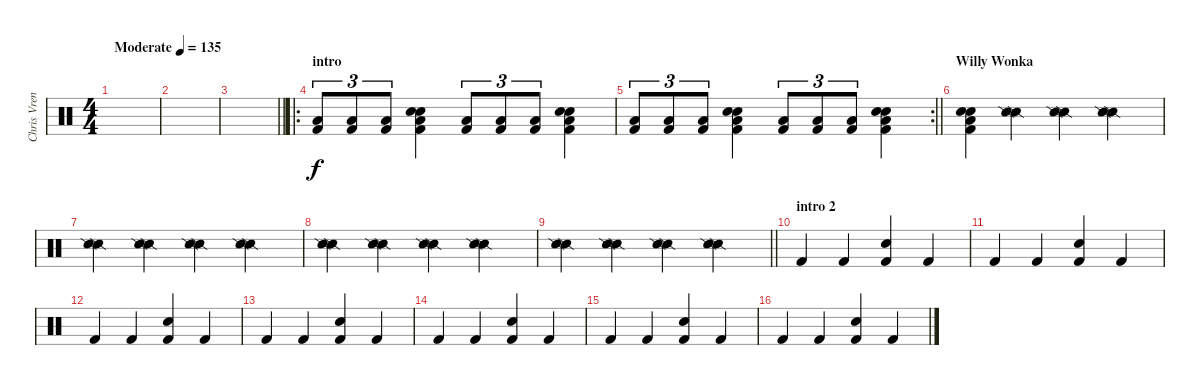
\track ("Chris Vrenna (percussions)" "Chris Vren") {instrument percussion}
\staff {score}
\articulation defaults
\ts (4 4)
\tempo (135 "Moderate")
\clef neutral
\ks c
|
|
\barLineRight lightlight
|
\ro
\section ("" "intro")
("Low Tom (hit)" "Kick (hit) 2").8{tu (3 2)} ("Low Tom (hit)" "Kick (hit) 2").8{tu (3 2)} ("Low Tom (hit)" "Kick (hit) 2").8{tu (3 2)} ("Electric Snare (hit)" "Snare (hit) 2" "Low Tom (hit)" "Kick (hit) 2").4 ("Low Tom (hit)" "Kick (hit) 2").8{tu (3 2)} ("Low Tom (hit)" "Kick (hit) 2").8{tu (3 2)} ("Low Tom (hit)" "Kick (hit) 2").8{tu (3 2)} ("Electric Snare (hit)" "Snare (hit) 2" "Low Tom (hit)" "Kick (hit) 2").4 |
\rc 2
\barLineRight lightlight
("Low Tom (hit)" "Kick (hit) 2").8{tu (3 2)} ("Low Tom (hit)" "Kick (hit) 2").8{tu (3 2)} ("Low Tom (hit)" "Kick (hit) 2").8{tu (3 2)} ("Electric Snare (hit)" "Snare (hit) 2" "Low Tom (hit)" "Kick (hit) 2").4 ("Low Tom (hit)" "Kick (hit) 2").8{tu (3 2)} ("Low Tom (hit)" "Kick (hit) 2").8{tu (3 2)} ("Low Tom (hit)" "Kick (hit) 2").8{tu (3 2)} ("Electric Snare (hit)" "Snare (hit) 2" "Low Tom (hit)" "Kick (hit) 2").4 |
\section ("" "Willy Wonka")
("Electric Snare (hit)" "Snare (hit) 2" "Low Tom (hit)" "Kick (hit) 2").4 ("Snare (side stick) 2" "Snare (side stick) 2").4 ("Snare (side stick) 2" "Snare (side stick) 2").4 ("Snare (side stick) 2" "Snare (side stick) 2").4 |
("Snare (side stick) 2" "Snare (side stick) 2").4 ("Snare (side stick) 2" "Snare (side stick) 2").4 ("Snare (side stick) 2" "Snare (side stick) 2").4 ("Snare (side stick) 2" "Snare (side stick) 2").4 |
("Snare (side stick) 2" "Snare (side stick) 2").4 ("Snare (side stick) 2" "Snare (side stick) 2").4 ("Snare (side stick) 2" "Snare (side stick) 2").4 ("Snare (side stick) 2" "Snare (side stick) 2").4 |
\barLineRight lightlight
("Snare (side stick) 2" "Snare (side stick) 2").4 ("Snare (side stick) 2" "Snare (side stick) 2").4 ("Snare (side stick) 2" "Snare (side stick) 2").4 ("Snare (side stick) 2" "Snare (side stick) 2").4 |
\section ("" "intro 2")
"Kick (hit) 2".4 "Kick (hit) 2".4 ("Snare (hit) 2" "Kick (hit) 2").4 "Kick (hit) 2".4 |
"Kick (hit) 2".4 "Kick (hit) 2".4 ("Snare (hit) 2" "Kick (hit) 2").4 "Kick (hit) 2".4 |
"Kick (hit) 2".4 "Kick (hit) 2".4 ("Snare (hit) 2" "Kick (hit) 2").4 "Kick (hit) 2".4 |
"Kick (hit) 2".4 "Kick (hit) 2".4 ("Snare (hit) 2" "Kick (hit) 2").4 "Kick (hit) 2".4 |
"Kick (hit) 2".4 "Kick (hit) 2".4 ("Snare (hit) 2" "Kick (hit) 2").4 "Kick (hit) 2".4 |
"Kick (hit) 2".4 "Kick (hit) 2".4 ("Snare (hit) 2" "Kick (hit) 2").4 "Kick (hit) 2".4 |
"Kick (hit) 2".4 "Kick (hit) 2".4 ("Snare (hit) 2" "Kick (hit) 2").4 "Kick (hit) 2".4
